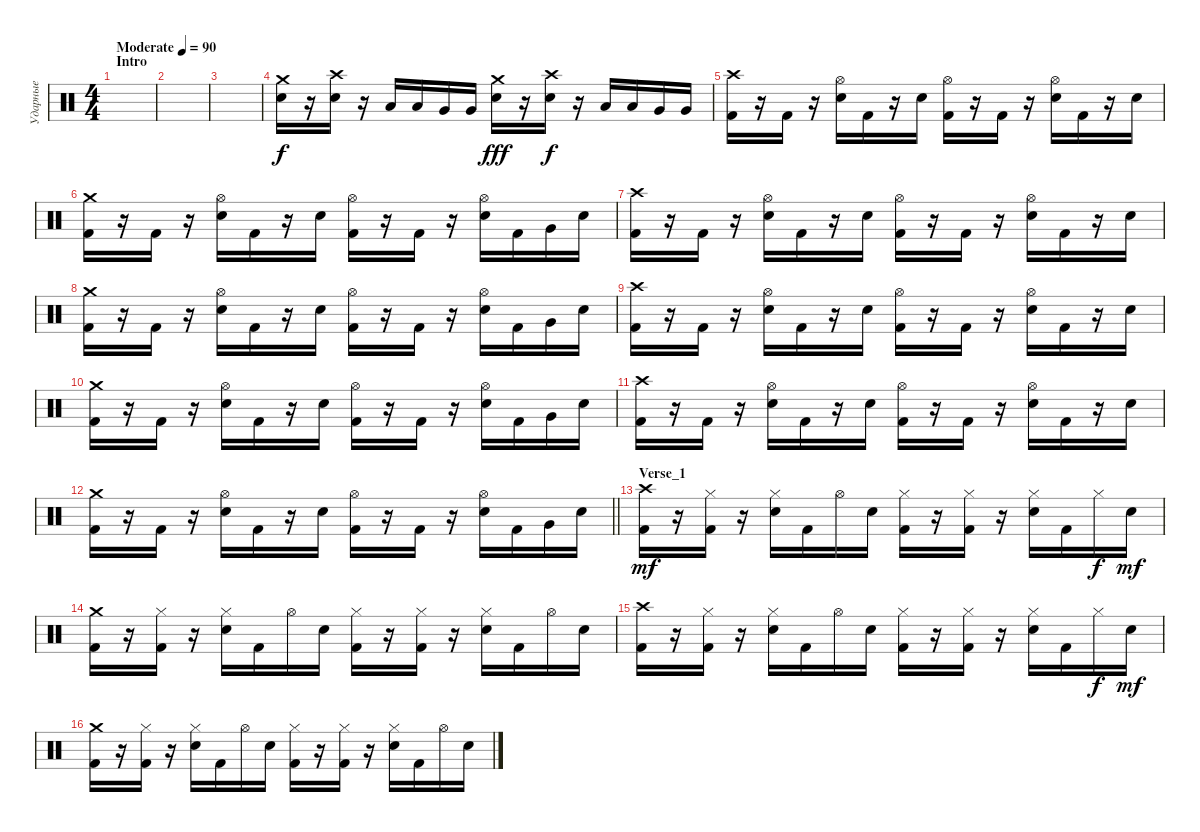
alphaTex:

\track ("Ударные" "Ударные") {instrument percussion}
\staff {score}
\articulation defaults
\ts (4 4)
\section ("" "Intro")
\tempo (90 "Moderate")
\clef neutral
\ks c
|
|
|
("Electric Snare (hit)" "Crash medium (hit)").16 r.16 ("Electric Snare (hit)" "Crash high (hit)").16{dy f} r.16 "Low Tom (hit)".16 "Low Tom (hit)".16 "Very Low Tom (hit)".16 "Very Low Tom (hit)".16 ("Electric Snare (hit)" "Crash medium (hit)").16{dy fff} r.16 ("Electric Snare (hit)" "Crash high (hit)").16{dy f} r.16 "Low Tom (hit)".16 "Low Tom (hit)".16 "Very Low Tom (hit)".16 "Very Low Tom (hit)".16 |
("Crash high (hit)" "Kick (hit) 2").16 r.16 "Kick (hit) 2".16 r.16 ("Hi-Hat (open)" "Electric Snare (hit)").16 "Kick (hit) 2".16 r.16 "Electric Snare (hit)".16 ("Hi-Hat (open)" "Kick (hit) 2").16 r.16 "Kick (hit) 2".16 r.16 ("Hi-Hat (open)" "Electric Snare (hit)").16 "Kick (hit) 2".16 r.16 "Electric Snare (hit)".16 |
("Crash medium (hit)" "Kick (hit) 2").16 r.16 "Kick (hit) 2".16 r.16 ("Hi-Hat (open)" "Electric Snare (hit)").16 "Kick (hit) 2".16 r.16 "Electric Snare (hit)".16 ("Hi-Hat (open)" "Kick (hit) 2").16 r.16 "Kick (hit) 2".16 r.16 ("Hi-Hat (open)" "Electric Snare (hit)").16 "Kick (hit) 2".16 "Very Low Tom (hit)".16 "Electric Snare (hit)".16 |
("Crash high (hit)" "Kick (hit) 2").16 r.16 "Kick (hit) 2".16 r.16 ("Hi-Hat (open)" "Electric Snare (hit)").16 "Kick (hit) 2".16 r.16 "Electric Snare (hit)".16 ("Hi-Hat (open)" "Kick (hit) 2").16 r.16 "Kick (hit) 2".16 r.16 ("Hi-Hat (open)" "Electric Snare (hit)").16 "Kick (hit) 2".16 r.16 "Electric Snare (hit)".16 |
("Crash medium (hit)" "Kick (hit) 2").16 r.16 "Kick (hit) 2".16 r.16 ("Hi-Hat (open)" "Electric Snare (hit)").16 "Kick (hit) 2".16 r.16 "Electric Snare (hit)".16 ("Hi-Hat (open)" "Kick (hit) 2").16 r.16 "Kick (hit) 2".16 r.16 ("Hi-Hat (open)" "Electric Snare (hit)").16 "Kick (hit) 2".16 "Very Low Tom (hit)".16 "Electric Snare (hit)".16 |
("Crash high (hit)" "Kick (hit) 2").16 r.16 "Kick (hit) 2".16 r.16 ("Hi-Hat (open)" "Electric Snare (hit)").16 "Kick (hit) 2".16 r.16 "Electric Snare (hit)".16 ("Hi-Hat (open)" "Kick (hit) 2").16 r.16 "Kick (hit) 2".16 r.16 ("Hi-Hat (open)" "Electric Snare (hit)").16 "Kick (hit) 2".16 r.16 "Electric Snare (hit)".16 |
("Crash medium (hit)" "Kick (hit) 2").16 r.16 "Kick (hit) 2".16 r.16 ("Hi-Hat (open)" "Electric Snare (hit)").16 "Kick (hit) 2".16 r.16 "Electric Snare (hit)".16 ("Hi-Hat (open)" "Kick (hit) 2").16 r.16 "Kick (hit) 2".16 r.16 ("Hi-Hat (open)" "Electric Snare (hit)").16 "Kick (hit) 2".16 "Very Low Tom (hit)".16 "Electric Snare (hit)".16 |
("Crash high (hit)" "Kick (hit) 2").16 r.16 "Kick (hit) 2".16 r.16 ("Hi-Hat (open)" "Electric Snare (hit)").16 "Kick (hit) 2".16 r.16 "Electric Snare (hit)".16 ("Hi-Hat (open)" "Kick (hit) 2").16 r.16 "Kick (hit) 2".16 r.16 ("Hi-Hat (open)" "Electric Snare (hit)").16 "Kick (hit) 2".16 r.16 "Electric Snare (hit)".16 |
\barLineRight lightlight
("Crash medium (hit)" "Kick (hit) 2").16 r.16 "Kick (hit) 2".16 r.16 ("Hi-Hat (open)" "Electric Snare (hit)").16 "Kick (hit) 2".16 r.16 "Electric Snare (hit)".16 ("Hi-Hat (open)" "Kick (hit) 2").16 r.16 "Kick (hit) 2".16 r.16 ("Hi-Hat (open)" "Electric Snare (hit)").16 "Kick (hit) 2".16 "Very Low Tom (hit)".16 "Electric Snare (hit)".16 |
\section ("" "Verse_1")
("Crash high (hit)" "Kick (hit) 2").16{dy mf} r.16 ("Hi-Hat (closed)" "Kick (hit) 2").16 r.16 ("Hi-Hat (closed)" "Electric Snare (hit)").16 "Kick (hit) 2".16 "Hi-Hat (open)".16 "Electric Snare (hit)".16 ("Hi-Hat (closed)" "Kick (hit) 2").16 r.16 ("Hi-Hat (closed)" "Kick (hit) 2").16 r.16 ("Hi-Hat (closed)" "Electric Snare (hit)").16 "Kick (hit) 2".16 "Hi-Hat (closed)".16{dy f} "Electric Snare (hit)".16{dy mf} |
("Crash medium (hit)" "Kick (hit) 2").16 r.16 ("Hi-Hat (closed)" "Kick (hit) 2").16 r.16 ("Hi-Hat (closed)" "Electric Snare (hit)").16 "Kick (hit) 2".16 "Hi-Hat (open)".16 "Electric Snare (hit)".16 ("Hi-Hat (closed)" "Kick (hit) 2").16 r.16 ("Hi-Hat (closed)" "Kick (hit) 2").16 r.16 ("Hi-Hat (closed)" "Electric Snare (hit)").16 "Kick (hit) 2".16 "Hi-Hat (open)".16 "Electric Snare (hit)".16 |
("Crash high (hit)" "Kick (hit) 2").16 r.16 ("Hi-Hat (closed)" "Kick (hit) 2").16 r.16 ("Hi-Hat (closed)" "Electric Snare (hit)").16 "Kick (hit) 2".16 "Hi-Hat (open)".16 "Electric Snare (hit)".16 ("Hi-Hat (closed)" "Kick (hit) 2").16 r.16 ("Hi-Hat (closed)" "Kick (hit) 2").16 r.16 ("Hi-Hat (closed)" "Electric Snare (hit)").16 "Kick (hit) 2".16 "Hi-Hat (closed)".16{dy f} "Electric Snare (hit)".16{dy mf} |
("Crash medium (hit)" "Kick (hit) 2").16 r.16 ("Hi-Hat (closed)" "Kick (hit) 2").16 r.16 ("Hi-Hat (closed)" "Electric Snare (hit)").16 "Kick (hit) 2".16 "Hi-Hat (open)".16 "Electric Snare (hit)".16 ("Hi-Hat (closed)" "Kick (hit) 2").16 r.16 ("Hi-Hat (closed)" "Kick (hit) 2").16 r.16 ("Hi-Hat (closed)" "Electric Snare (hit)").16 "Kick (hit) 2".16 "Hi-Hat (open)".16 "Electric Snare (hit)".16
